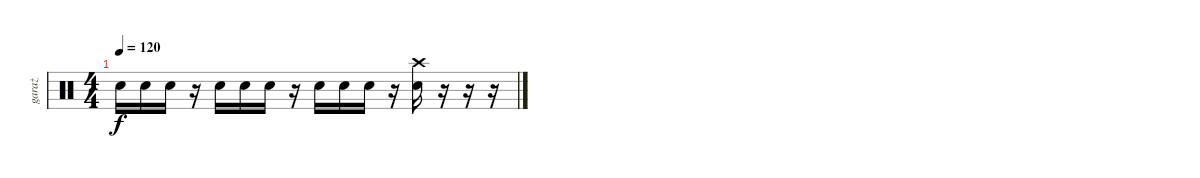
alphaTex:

\track ("garaż" "garaż") {instrument percussion}
\staff {score}
\articulation defaults
\ts (4 4)
\tempo 120
\clef neutral
\ks c "Snare (hit) 2".16{dy f} "Snare (hit) 2".16 "Snare (hit) 2".16
r.16 "Snare (hit) 2".16 "Snare (hit) 2".16 "Snare (hit) 2".16 r.16 "Snare (hit) 2".16 "Snare (hit) 2".16 "Snare (hit) 2".16 r.16 ("Crash high (hit)" "Snare (hit) 2").16 r.16 r.16 r.16
